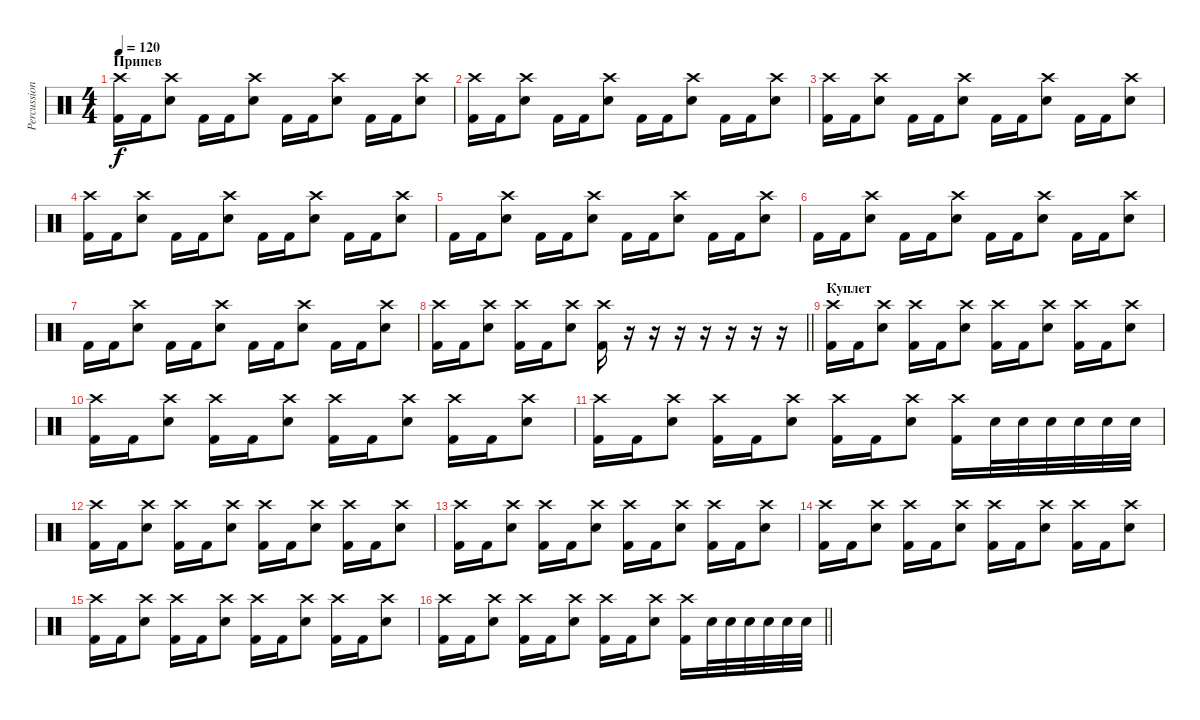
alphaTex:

\track ("Percussion" "Percussion") {instrument percussion}
\staff {score}
\articulation defaults
\ts (4 4)
\section ("" "Припев")
\tempo 120
\clef neutral
\ks c
("Crash high (hit)" "Kick (hit) 2").16{dy f} "Kick (hit) 2".16 ("Crash high (hit)" "Electric Snare (hit)").8 "Kick (hit) 2".16 "Kick (hit) 2".16 ("Crash high (hit)" "Electric Snare (hit)").8 "Kick (hit) 2".16 "Kick (hit) 2".16 ("Crash high (hit)" "Electric Snare (hit)").8 "Kick (hit) 2".16 "Kick (hit) 2".16 ("Crash high (hit)" "Electric Snare (hit)").8 |
("Crash high (hit)" "Kick (hit) 2").16 "Kick (hit) 2".16 ("Crash high (hit)" "Electric Snare (hit)").8 "Kick (hit) 2".16 "Kick (hit) 2".16 ("Crash high (hit)" "Electric Snare (hit)").8 "Kick (hit) 2".16 "Kick (hit) 2".16 ("Crash high (hit)" "Electric Snare (hit)").8 "Kick (hit) 2".16 "Kick (hit) 2".16 ("Crash high (hit)" "Electric Snare (hit)").8 |
("Crash high (hit)" "Kick (hit) 2").16 "Kick (hit) 2".16 ("Crash high (hit)" "Electric Snare (hit)").8 "Kick (hit) 2".16 "Kick (hit) 2".16 ("Crash high (hit)" "Electric Snare (hit)").8 "Kick (hit) 2".16 "Kick (hit) 2".16 ("Crash high (hit)" "Electric Snare (hit)").8 "Kick (hit) 2".16 "Kick (hit) 2".16 ("Crash high (hit)" "Electric Snare (hit)").8 |
("Crash high (hit)" "Kick (hit) 2").16 "Kick (hit) 2".16 ("Crash high (hit)" "Electric Snare (hit)").8 "Kick (hit) 2".16 "Kick (hit) 2".16 ("Crash high (hit)" "Electric Snare (hit)").8 "Kick (hit) 2".16 "Kick (hit) 2".16 ("Crash high (hit)" "Electric Snare (hit)").8 "Kick (hit) 2".16 "Kick (hit) 2".16 ("Crash high (hit)" "Electric Snare (hit)").8 |
"Kick (hit) 2".16 "Kick (hit) 2".16 ("Crash high (hit)" "Electric Snare (hit)").8 "Kick (hit) 2".16 "Kick (hit) 2".16 ("Crash high (hit)" "Electric Snare (hit)").8 "Kick (hit) 2".16 "Kick (hit) 2".16 ("Crash high (hit)" "Electric Snare (hit)").8 "Kick (hit) 2".16 "Kick (hit) 2".16 ("Crash high (hit)" "Electric Snare (hit)").8 |
"Kick (hit) 2".16 "Kick (hit) 2".16 ("Crash high (hit)" "Electric Snare (hit)").8 "Kick (hit) 2".16 "Kick (hit) 2".16 ("Crash high (hit)" "Electric Snare (hit)").8 "Kick (hit) 2".16 "Kick (hit) 2".16 ("Crash high (hit)" "Electric Snare (hit)").8 "Kick (hit) 2".16 "Kick (hit) 2".16 ("Crash high (hit)" "Electric Snare (hit)").8 |
"Kick (hit) 2".16 "Kick (hit) 2".16 ("Crash high (hit)" "Electric Snare (hit)").8 "Kick (hit) 2".16 "Kick (hit) 2".16 ("Crash high (hit)" "Electric Snare (hit)").8 "Kick (hit) 2".16 "Kick (hit) 2".16 ("Crash high (hit)" "Electric Snare (hit)").8 "Kick (hit) 2".16 "Kick (hit) 2".16 ("Crash high (hit)" "Electric Snare (hit)").8 |
\barLineRight lightlight
("Crash high (hit)" "Kick (hit) 2").16 "Kick (hit) 2".16 ("Crash high (hit)" "Electric Snare (hit)").8 ("Crash high (hit)" "Kick (hit) 2").16 "Kick (hit) 2".16 ("Crash high (hit)" "Electric Snare (hit)").8 ("Crash high (hit)" "Kick (hit) 2").16 r.16 r.16 r.16 r.16 r.16 r.16 r.16 |
\section ("" "Куплет")
("Crash high (hit)" "Kick (hit) 2").16 "Kick (hit) 2".16 ("Crash high (hit)" "Electric Snare (hit)").8 ("Crash high (hit)" "Kick (hit) 2").16 "Kick (hit) 2".16 ("Crash high (hit)" "Electric Snare (hit)").8 ("Crash high (hit)" "Kick (hit) 2").16 "Kick (hit) 2".16 ("Crash high (hit)" "Electric Snare (hit)").8 ("Crash high (hit)" "Kick (hit) 2").16 "Kick (hit) 2".16 ("Crash high (hit)" "Electric Snare (hit)").8 |
("Crash high (hit)" "Kick (hit) 2").16 "Kick (hit) 2".16 ("Crash high (hit)" "Electric Snare (hit)").8 ("Crash high (hit)" "Kick (hit) 2").16 "Kick (hit) 2".16 ("Crash high (hit)" "Electric Snare (hit)").8 ("Crash high (hit)" "Kick (hit) 2").16 "Kick (hit) 2".16 ("Crash high (hit)" "Electric Snare (hit)").8 ("Crash high (hit)" "Kick (hit) 2").16 "Kick (hit) 2".16 ("Crash high (hit)" "Electric Snare (hit)").8 |
("Crash high (hit)" "Kick (hit) 2").16 "Kick (hit) 2".16 ("Crash high (hit)" "Electric Snare (hit)").8 ("Crash high (hit)" "Kick (hit) 2").16 "Kick (hit) 2".16 ("Crash high (hit)" "Electric Snare (hit)").8 ("Crash high (hit)" "Kick (hit) 2").16 "Kick (hit) 2".16 ("Crash high (hit)" "Electric Snare (hit)").8 ("Crash high (hit)" "Kick (hit) 2").16 "Electric Snare (hit)".32 "Electric Snare (hit)".32 "Electric Snare (hit)".32 "Electric Snare (hit)".32 "Electric Snare (hit)".32 "Electric Snare (hit)".32 |
("Crash high (hit)" "Kick (hit) 2").16 "Kick (hit) 2".16 ("Crash high (hit)" "Electric Snare (hit)").8 ("Crash high (hit)" "Kick (hit) 2").16 "Kick (hit) 2".16 ("Crash high (hit)" "Electric Snare (hit)").8 ("Crash high (hit)" "Kick (hit) 2").16 "Kick (hit) 2".16 ("Crash high (hit)" "Electric Snare (hit)").8 ("Crash high (hit)" "Kick (hit) 2").16 "Kick (hit) 2".16 ("Crash high (hit)" "Electric Snare (hit)").8 |
("Crash high (hit)" "Kick (hit) 2").16 "Kick (hit) 2".16 ("Crash high (hit)" "Electric Snare (hit)").8 ("Crash high (hit)" "Kick (hit) 2").16 "Kick (hit) 2".16 ("Crash high (hit)" "Electric Snare (hit)").8 ("Crash high (hit)" "Kick (hit) 2").16 "Kick (hit) 2".16 ("Crash high (hit)" "Electric Snare (hit)").8 ("Crash high (hit)" "Kick (hit) 2").16 "Kick (hit) 2".16 ("Crash high (hit)" "Electric Snare (hit)").8 |
("Crash high (hit)" "Kick (hit) 2").16 "Kick (hit) 2".16 ("Crash high (hit)" "Electric Snare (hit)").8 ("Crash high (hit)" "Kick (hit) 2").16 "Kick (hit) 2".16 ("Crash high (hit)" "Electric Snare (hit)").8 ("Crash high (hit)" "Kick (hit) 2").16 "Kick (hit) 2".16 ("Crash high (hit)" "Electric Snare (hit)").8 ("Crash high (hit)" "Kick (hit) 2").16 "Kick (hit) 2".16 ("Crash high (hit)" "Electric Snare (hit)").8 |
("Crash high (hit)" "Kick (hit) 2").16 "Kick (hit) 2".16 ("Crash high (hit)" "Electric Snare (hit)").8 ("Crash high (hit)" "Kick (hit) 2").16 "Kick (hit) 2".16 ("Crash high (hit)" "Electric Snare (hit)").8 ("Crash high (hit)" "Kick (hit) 2").16 "Kick (hit) 2".16 ("Crash high (hit)" "Electric Snare (hit)").8 ("Crash high (hit)" "Kick (hit) 2").16 "Kick (hit) 2".16 ("Crash high (hit)" "Electric Snare (hit)").8 |
\barLineRight lightlight
("Crash high (hit)" "Kick (hit) 2").16 "Kick (hit) 2".16 ("Crash high (hit)" "Electric Snare (hit)").8 ("Crash high (hit)" "Kick (hit) 2").16 "Kick (hit) 2".16 ("Crash high (hit)" "Electric Snare (hit)").8 ("Crash high (hit)" "Kick (hit) 2").16 "Kick (hit) 2".16 ("Crash high (hit)" "Electric Snare (hit)").8 ("Crash high (hit)" "Kick (hit) 2").16 "Electric Snare (hit)".32 "Electric Snare (hit)".32 "Electric Snare (hit)".32 "Electric Snare (hit)".32 "Electric Snare (hit)".32 "Electric Snare (hit)".32
